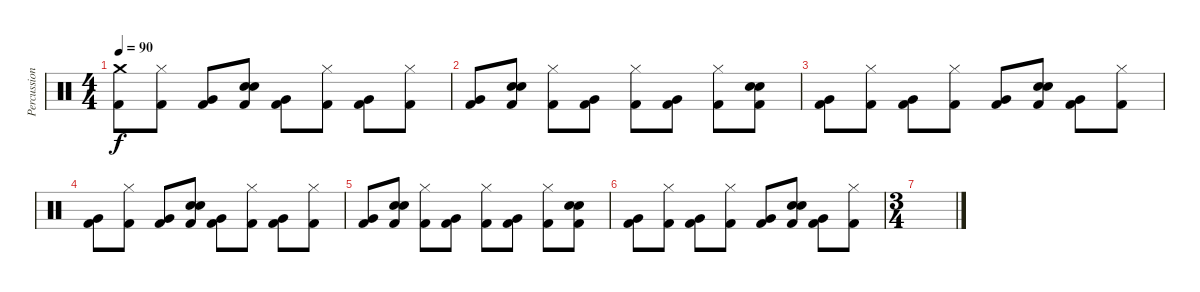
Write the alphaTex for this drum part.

\track ("Percussion" "Percussion") {instrument percussion}
\staff {score}
\articulation defaults
\ts (4 4)
\tempo 90
\clef neutral
\ks c
("Crash medium (hit)" "Kick (hit) 2").8{dy f} ("Hi-Hat (closed)" "Kick (hit) 2").8 ("Very Low Tom (hit)" "Kick (hit) 2").8 ("Electric Snare (hit)" "Snare (hit) 2" "Kick (hit) 2").8 ("Very Low Tom (hit)" "Kick (hit) 2").8 ("Hi-Hat (closed)" "Kick (hit) 2").8 ("Very Low Tom (hit)" "Kick (hit) 2").8 ("Hi-Hat (closed)" "Kick (hit) 2").8 |
("Very Low Tom (hit)" "Kick (hit) 2").8 ("Electric Snare (hit)" "Snare (hit) 2" "Kick (hit) 2").8 ("Hi-Hat (closed)" "Kick (hit) 2").8 ("Very Low Tom (hit)" "Kick (hit) 2").8 ("Hi-Hat (closed)" "Kick (hit) 2").8 ("Very Low Tom (hit)" "Kick (hit) 2").8 ("Hi-Hat (closed)" "Kick (hit) 2").8 ("Electric Snare (hit)" "Snare (hit) 2" "Kick (hit) 2").8 |
("Very Low Tom (hit)" "Kick (hit) 2").8 ("Hi-Hat (closed)" "Kick (hit) 2").8 ("Very Low Tom (hit)" "Kick (hit) 2").8 ("Hi-Hat (closed)" "Kick (hit) 2").8 ("Very Low Tom (hit)" "Kick (hit) 2").8 ("Electric Snare (hit)" "Snare (hit) 2" "Kick (hit) 2").8 ("Very Low Tom (hit)" "Kick (hit) 2").8 ("Hi-Hat (closed)" "Kick (hit) 2").8 |
("Very Low Tom (hit)" "Kick (hit) 2").8 ("Hi-Hat (closed)" "Kick (hit) 2").8 ("Very Low Tom (hit)" "Kick (hit) 2").8 ("Electric Snare (hit)" "Snare (hit) 2" "Kick (hit) 2").8 ("Very Low Tom (hit)" "Kick (hit) 2").8 ("Hi-Hat (closed)" "Kick (hit) 2").8 ("Very Low Tom (hit)" "Kick (hit) 2").8 ("Hi-Hat (closed)" "Kick (hit) 2").8 |
("Very Low Tom (hit)" "Kick (hit) 2").8 ("Electric Snare (hit)" "Snare (hit) 2" "Kick (hit) 2").8 ("Hi-Hat (closed)" "Kick (hit) 2").8 ("Very Low Tom (hit)" "Kick (hit) 2").8 ("Hi-Hat (closed)" "Kick (hit) 2").8 ("Very Low Tom (hit)" "Kick (hit) 2").8 ("Hi-Hat (closed)" "Kick (hit) 2").8 ("Electric Snare (hit)" "Snare (hit) 2" "Kick (hit) 2").8 |
("Very Low Tom (hit)" "Kick (hit) 2").8 ("Hi-Hat (closed)" "Kick (hit) 2").8 ("Very Low Tom (hit)" "Kick (hit) 2").8 ("Hi-Hat (closed)" "Kick (hit) 2").8 ("Very Low Tom (hit)" "Kick (hit) 2").8 ("Electric Snare (hit)" "Snare (hit) 2" "Kick (hit) 2").8 ("Very Low Tom (hit)" "Kick (hit) 2").8 ("Hi-Hat (closed)" "Kick (hit) 2").8 |
\ts (3 4)
